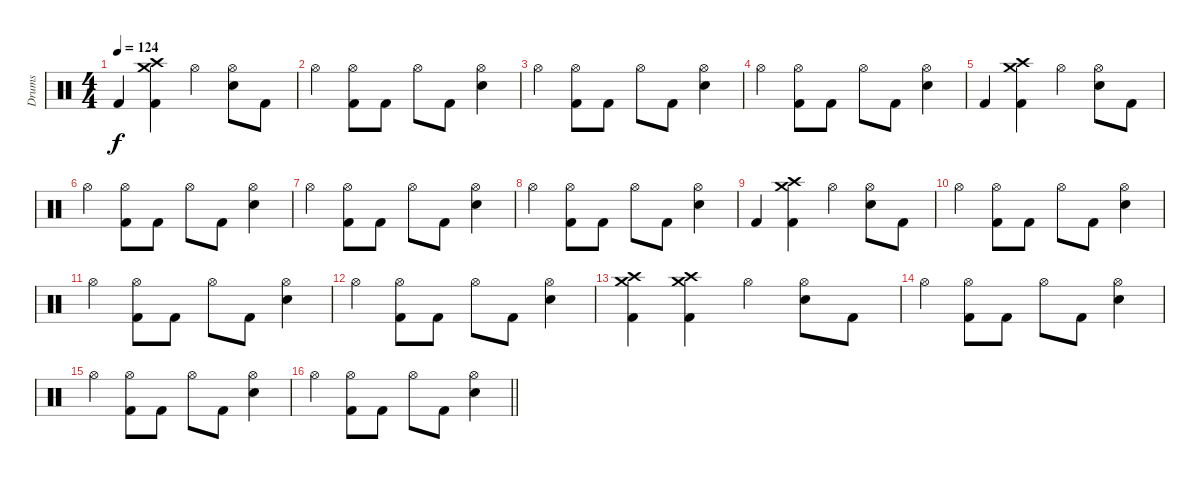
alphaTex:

\track ("Drums" "Drums") {instrument percussion}
\staff {score}
\articulation defaults
\ts (4 4)
\tempo 124
\clef neutral
\ks c "Kick (hit) 2".4{dy f}
("Crash medium (hit)" "Crash high (hit)" "Kick (hit) 2").4 "Hi-Hat (open)".4 ("Hi-Hat (open)" "Electric Snare (hit)").8 "Kick (hit) 2".8 |
"Hi-Hat (open)".4 ("Hi-Hat (open)" "Kick (hit) 2").8 "Kick (hit) 2".8 "Hi-Hat (open)".8 "Kick (hit) 2".8 ("Hi-Hat (open)" "Electric Snare (hit)").4 |
"Hi-Hat (open)".4 ("Hi-Hat (open)" "Kick (hit) 2").8 "Kick (hit) 2".8 "Hi-Hat (open)".8 "Kick (hit) 2".8 ("Hi-Hat (open)" "Electric Snare (hit)").4 |
"Hi-Hat (open)".4 ("Hi-Hat (open)" "Kick (hit) 2").8 "Kick (hit) 2".8 "Hi-Hat (open)".8 "Kick (hit) 2".8 ("Hi-Hat (open)" "Electric Snare (hit)").4 |
"Kick (hit) 2".4 ("Crash medium (hit)" "Crash high (hit)" "Kick (hit) 2").4 "Hi-Hat (open)".4 ("Hi-Hat (open)" "Electric Snare (hit)").8 "Kick (hit) 2".8 |
"Hi-Hat (open)".4 ("Hi-Hat (open)" "Kick (hit) 2").8 "Kick (hit) 2".8 "Hi-Hat (open)".8 "Kick (hit) 2".8 ("Hi-Hat (open)" "Electric Snare (hit)").4 |
"Hi-Hat (open)".4 ("Hi-Hat (open)" "Kick (hit) 2").8 "Kick (hit) 2".8 "Hi-Hat (open)".8 "Kick (hit) 2".8 ("Hi-Hat (open)" "Electric Snare (hit)").4 |
"Hi-Hat (open)".4 ("Hi-Hat (open)" "Kick (hit) 2").8 "Kick (hit) 2".8 "Hi-Hat (open)".8 "Kick (hit) 2".8 ("Hi-Hat (open)" "Electric Snare (hit)").4 |
"Kick (hit) 2".4 ("Crash medium (hit)" "Crash high (hit)" "Kick (hit) 2").4 "Hi-Hat (open)".4 ("Hi-Hat (open)" "Electric Snare (hit)").8 "Kick (hit) 2".8 |
"Hi-Hat (open)".4 ("Hi-Hat (open)" "Kick (hit) 2").8 "Kick (hit) 2".8 "Hi-Hat (open)".8 "Kick (hit) 2".8 ("Hi-Hat (open)" "Electric Snare (hit)").4 |
"Hi-Hat (open)".4 ("Hi-Hat (open)" "Kick (hit) 2").8 "Kick (hit) 2".8 "Hi-Hat (open)".8 "Kick (hit) 2".8 ("Hi-Hat (open)" "Electric Snare (hit)").4 |
"Hi-Hat (open)".4 ("Hi-Hat (open)" "Kick (hit) 2").8 "Kick (hit) 2".8 "Hi-Hat (open)".8 "Kick (hit) 2".8 ("Hi-Hat (open)" "Electric Snare (hit)").4 |
("Crash medium (hit)" "Crash high (hit)" "Kick (hit) 2").4 ("Crash medium (hit)" "Crash high (hit)" "Kick (hit) 2").4 "Hi-Hat (open)".4 ("Hi-Hat (open)" "Electric Snare (hit)").8 "Kick (hit) 2".8 |
"Hi-Hat (open)".4 ("Hi-Hat (open)" "Kick (hit) 2").8 "Kick (hit) 2".8 "Hi-Hat (open)".8 "Kick (hit) 2".8 ("Hi-Hat (open)" "Electric Snare (hit)").4 |
"Hi-Hat (open)".4 ("Hi-Hat (open)" "Kick (hit) 2").8 "Kick (hit) 2".8 "Hi-Hat (open)".8 "Kick (hit) 2".8 ("Hi-Hat (open)" "Electric Snare (hit)").4 |
\barLineRight lightlight "Hi-Hat (open)".4
("Hi-Hat (open)" "Kick (hit) 2").8 "Kick (hit) 2".8 "Hi-Hat (open)".8 "Kick (hit) 2".8 ("Hi-Hat (open)" "Electric Snare (hit)").4
